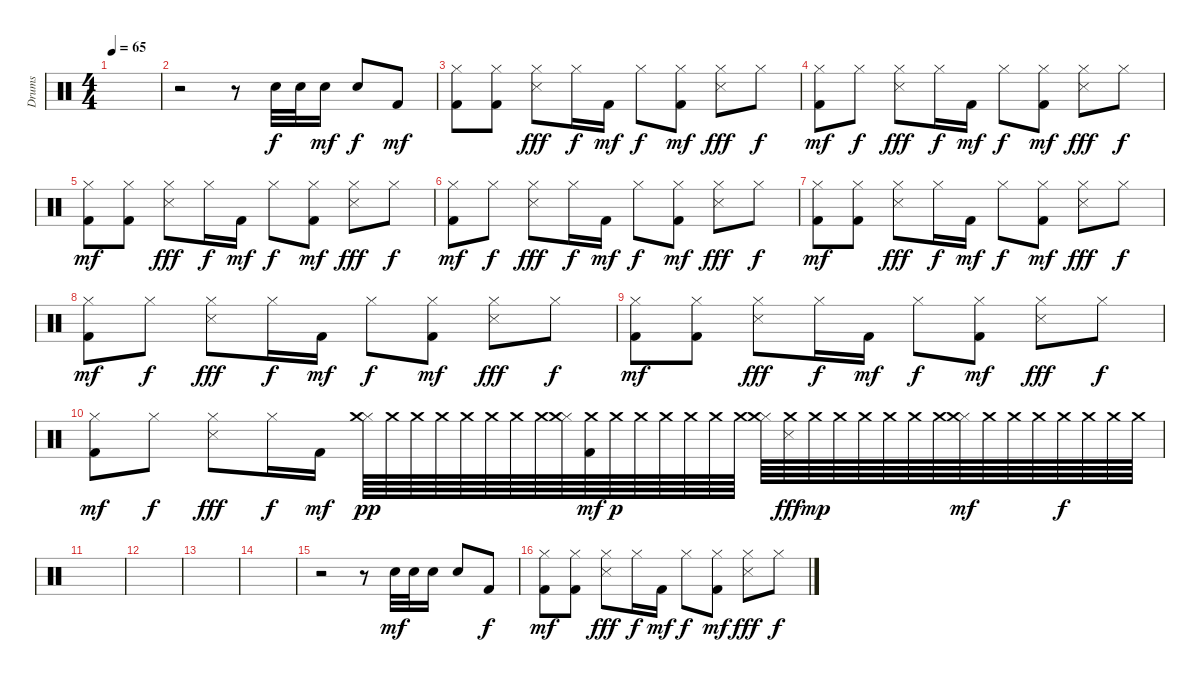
\track ("Drums" "Drums") {instrument percussion}
\staff {score}
\articulation defaults
\ts (4 4)
\tempo 65
\clef neutral
\ks c
|
r.2 r.8 "Electric Snare (hit)".32 "Electric Snare (hit)".32 "Electric Snare (hit)".16{dy mf} "Electric Snare (hit)".8{dy f} "Kick (hit) 2".8{dy mf} |
("Hi-Hat (closed)" "Kick (hit) 2").8 ("Hi-Hat (closed)" "Kick (hit) 2").8 ("Hi-Hat (closed)" "Snare (side stick) 3").8{dy fff} "Hi-Hat (closed)".16{dy f} "Kick (hit) 2".16{dy mf} "Hi-Hat (closed)".8{dy f} ("Hi-Hat (closed)" "Kick (hit) 2").8{dy mf} ("Hi-Hat (closed)" "Snare (side stick) 3").8{dy fff} "Hi-Hat (closed)".8{dy f} |
("Hi-Hat (closed)" "Kick (hit) 2").8{dy mf} "Hi-Hat (closed)".8{dy f} ("Hi-Hat (closed)" "Snare (side stick) 3").8{dy fff} "Hi-Hat (closed)".16{dy f} "Kick (hit) 2".16{dy mf} "Hi-Hat (closed)".8{dy f} ("Hi-Hat (closed)" "Kick (hit) 2").8{dy mf} ("Hi-Hat (closed)" "Snare (side stick) 3").8{dy fff} "Hi-Hat (closed)".8{dy f} |
("Hi-Hat (closed)" "Kick (hit) 2").8{dy mf} ("Hi-Hat (closed)" "Kick (hit) 2").8 ("Hi-Hat (closed)" "Snare (side stick) 3").8{dy fff} "Hi-Hat (closed)".16{dy f} "Kick (hit) 2".16{dy mf} "Hi-Hat (closed)".8{dy f} ("Hi-Hat (closed)" "Kick (hit) 2").8{dy mf} ("Hi-Hat (closed)" "Snare (side stick) 3").8{dy fff} "Hi-Hat (closed)".8{dy f} |
("Hi-Hat (closed)" "Kick (hit) 2").8{dy mf} "Hi-Hat (closed)".8{dy f} ("Hi-Hat (closed)" "Snare (side stick) 3").8{dy fff} "Hi-Hat (closed)".16{dy f} "Kick (hit) 2".16{dy mf} "Hi-Hat (closed)".8{dy f} ("Hi-Hat (closed)" "Kick (hit) 2").8{dy mf} ("Hi-Hat (closed)" "Snare (side stick) 3").8{dy fff} "Hi-Hat (closed)".8{dy f} |
("Hi-Hat (closed)" "Kick (hit) 2").8{dy mf} ("Hi-Hat (closed)" "Kick (hit) 2").8 ("Hi-Hat (closed)" "Snare (side stick) 3").8{dy fff} "Hi-Hat (closed)".16{dy f} "Kick (hit) 2".16{dy mf} "Hi-Hat (closed)".8{dy f} ("Hi-Hat (closed)" "Kick (hit) 2").8{dy mf} ("Hi-Hat (closed)" "Snare (side stick) 3").8{dy fff} "Hi-Hat (closed)".8{dy f} |
("Hi-Hat (closed)" "Kick (hit) 2").8{dy mf} "Hi-Hat (closed)".8{dy f} ("Hi-Hat (closed)" "Snare (side stick) 3").8{dy fff} "Hi-Hat (closed)".16{dy f} "Kick (hit) 2".16{dy mf} "Hi-Hat (closed)".8{dy f} ("Hi-Hat (closed)" "Kick (hit) 2").8{dy mf} ("Hi-Hat (closed)" "Snare (side stick) 3").8{dy fff} "Hi-Hat (closed)".8{dy f} |
("Hi-Hat (closed)" "Kick (hit) 2").8{dy mf} ("Hi-Hat (closed)" "Kick (hit) 2").8 ("Hi-Hat (closed)" "Snare (side stick) 3").8{dy fff} "Hi-Hat (closed)".16{dy f} "Kick (hit) 2".16{dy mf} "Hi-Hat (closed)".8{dy f} ("Hi-Hat (closed)" "Kick (hit) 2").8{dy mf} ("Hi-Hat (closed)" "Snare (side stick) 3").8{dy fff} "Hi-Hat (closed)".8{dy f} |
("Hi-Hat (closed)" "Kick (hit) 2").8{dy mf} "Hi-Hat (closed)".8{dy f} ("Hi-Hat (closed)" "Snare (side stick) 3").8{dy fff} "Hi-Hat (closed)".16{dy f} "Kick (hit) 2".16{dy mf} ("Hi-Hat (closed)" "Crash medium (hit)").64{dy pp} "Crash medium (hit)".64 "Crash medium (hit)".64 "Crash medium (hit)".64 "Crash medium (hit)".64 "Crash medium (hit)".64 "Crash medium (hit)".64 "Crash medium (hit)".64 ("Hi-Hat (closed)" "Crash medium (hit)").64 ("Crash medium (hit)" "Kick (hit) 2").64{dy mf} "Crash medium (hit)".64{dy p} "Crash medium (hit)".64 "Crash medium (hit)".64 "Crash medium (hit)".64 "Crash medium (hit)".64 "Crash medium (hit)".64 ("Hi-Hat (closed)" "Crash medium (hit)").64 ("Crash medium (hit)" "Snare (side stick) 3").64{dy fff} "Crash medium (hit)".64{dy mp} "Crash medium (hit)".64 "Crash medium (hit)".64 "Crash medium (hit)".64 "Crash medium (hit)".64 "Crash medium (hit)".64 ("Hi-Hat (closed)" "Crash medium (hit)").64{dy mf} "Crash medium (hit)".64 "Crash medium (hit)".64 "Crash medium (hit)".64 "Crash medium (hit)".64{dy f} "Crash medium (hit)".64 "Crash medium (hit)".64 "Crash medium (hit)".64 |
|
|
|
|
r.2 r.8 "Electric Snare (hit)".32{dy mf} "Electric Snare (hit)".32 "Electric Snare (hit)".16 "Electric Snare (hit)".8 "Kick (hit) 2".8{dy f} |
("Hi-Hat (closed)" "Kick (hit) 2").8{dy mf} ("Hi-Hat (closed)" "Kick (hit) 2").8 ("Hi-Hat (closed)" "Snare (side stick) 3").8{dy fff} "Hi-Hat (closed)".16{dy f} "Kick (hit) 2".16{dy mf} "Hi-Hat (closed)".8{dy f} ("Hi-Hat (closed)" "Kick (hit) 2").8{dy mf} ("Hi-Hat (closed)" "Snare (side stick) 3").8{dy fff} "Hi-Hat (closed)".8{dy f}
